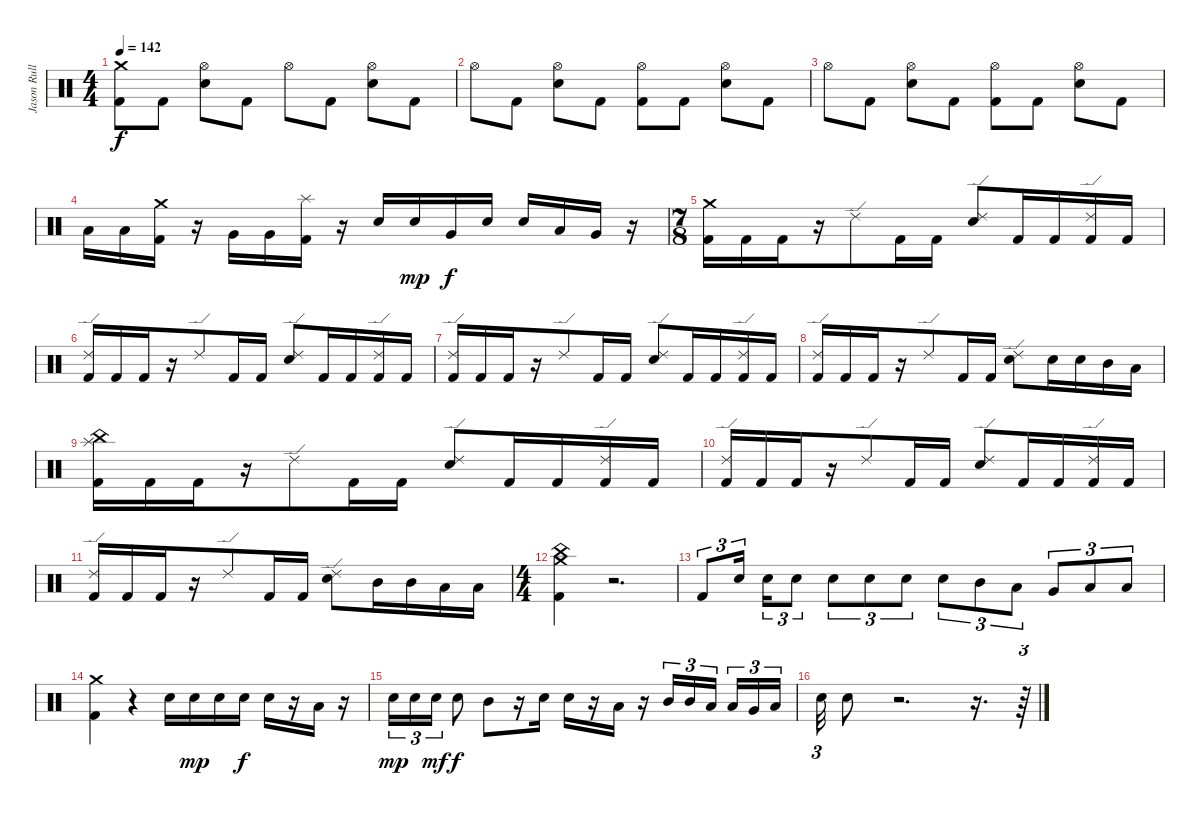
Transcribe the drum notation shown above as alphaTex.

\track ("Jason Rullo" "Jason Rull") {instrument percussion}
\staff {score}
\articulation defaults
\ts (4 4)
\tempo 142
\clef neutral
\ks c
("Crash medium (hit)" "Kick (hit) 2").8{dy f} "Kick (hit) 2".8 ("Hi-Hat (open)" "Electric Snare (hit)").8 "Kick (hit) 2".8 "Hi-Hat (open)".8 "Kick (hit) 2".8 ("Hi-Hat (open)" "Electric Snare (hit)").8 "Kick (hit) 2".8 |
"Hi-Hat (open)".8 "Kick (hit) 2".8 ("Hi-Hat (open)" "Electric Snare (hit)").8 "Kick (hit) 2".8 ("Kick (hit) 2" "Hi-Hat (open)").8 "Kick (hit) 2".8 ("Hi-Hat (open)" "Electric Snare (hit)").8 "Kick (hit) 2".8 |
"Hi-Hat (open)".8 "Kick (hit) 2".8 ("Hi-Hat (open)" "Electric Snare (hit)").8 "Kick (hit) 2".8 ("Kick (hit) 2" "Hi-Hat (open)").8 "Kick (hit) 2".8 ("Hi-Hat (open)" "Electric Snare (hit)").8 "Kick (hit) 2".8 |
"Low Tom (hit)".16 "Low Tom (hit)".16 ("Crash medium (hit)" "Kick (hit) 2").16 r.16 "Very Low Tom (hit)".16 "Very Low Tom (hit)".16 ("Splash (hit)" "Kick (hit) 2").16 r.16 "Electric Snare (hit)".16 "Electric Snare (hit)".16{dy mp} "Very Low Tom (hit)".16{dy f} "Electric Snare (hit)".16 "Electric Snare (hit)".16 "Low Tom (hit)".16 "Very Low Tom (hit)".16 r.16 |
\ts (7 8)
("Crash medium (hit)" "Kick (hit) 2").16 "Kick (hit) 2".16 "Kick (hit) 2".16 r.16 "Ride (edge) 2".8 "Kick (hit) 2".16 "Kick (hit) 2".16 ("Ride (edge) 2" "Electric Snare (hit)").8 "Kick (hit) 2".16 "Kick (hit) 2".16 ("Ride (edge) 2" "Kick (hit) 2").16 "Kick (hit) 2".16 |
("Ride (edge) 2" "Kick (hit) 2").16 "Kick (hit) 2".16 "Kick (hit) 2".16 r.16 "Ride (edge) 2".8 "Kick (hit) 2".16 "Kick (hit) 2".16 ("Ride (edge) 2" "Electric Snare (hit)").8 "Kick (hit) 2".16 "Kick (hit) 2".16 ("Ride (edge) 2" "Kick (hit) 2").16 "Kick (hit) 2".16 |
("Ride (edge) 2" "Kick (hit) 2").16 "Kick (hit) 2".16 "Kick (hit) 2".16 r.16 "Ride (edge) 2".8 "Kick (hit) 2".16 "Kick (hit) 2".16 ("Ride (edge) 2" "Electric Snare (hit)").8 "Kick (hit) 2".16 "Kick (hit) 2".16 ("Ride (edge) 2" "Kick (hit) 2").16 "Kick (hit) 2".16 |
("Ride (edge) 2" "Kick (hit) 2").16 "Kick (hit) 2".16 "Kick (hit) 2".16 r.16 "Ride (edge) 2".8 "Kick (hit) 2".16 "Kick (hit) 2".16 ("Ride (edge) 2" "Electric Snare (hit)").8 "Electric Snare (hit)".16 "Electric Snare (hit)".16 "Mid Tom (hit)".16 "Low Tom (hit)".16 |
("Splash (hit)" "China (hit)" "Kick (hit) 2").16 "Kick (hit) 2".16 "Kick (hit) 2".16 r.16 "Ride (edge) 2".8 "Kick (hit) 2".16 "Kick (hit) 2".16 ("Ride (edge) 2" "Electric Snare (hit)").8 "Kick (hit) 2".16 "Kick (hit) 2".16 ("Ride (edge) 2" "Kick (hit) 2").16 "Kick (hit) 2".16 |
("Ride (edge) 2" "Kick (hit) 2").16 "Kick (hit) 2".16 "Kick (hit) 2".16 r.16 "Ride (edge) 2".8 "Kick (hit) 2".16 "Kick (hit) 2".16 ("Ride (edge) 2" "Electric Snare (hit)").8 "Kick (hit) 2".16 "Kick (hit) 2".16 ("Ride (edge) 2" "Kick (hit) 2").16 "Kick (hit) 2".16 |
("Ride (edge) 2" "Kick (hit) 2").16 "Kick (hit) 2".16 "Kick (hit) 2".16 r.16 "Ride (edge) 2".8 "Kick (hit) 2".16 "Kick (hit) 2".16 ("Ride (edge) 2" "Electric Snare (hit)").8 "Mid Tom (hit)".16 "Mid Tom (hit)".16 "Low Tom (hit)".16 "Low Tom (hit)".16 |
\ts (4 4)
("China (hit)" "Crash medium (hit)" "Kick (hit) 2").4 r.2{d} |
"Kick (hit) 2".8{tu (3 2)} "Electric Snare (hit)".16{tu (3 2)} "Electric Snare (hit)".16{tu (3 2)} "Electric Snare (hit)".8{tu (3 2)} "Electric Snare (hit)".8{tu (3 2)} "Electric Snare (hit)".8{tu (3 2)} "Electric Snare (hit)".8{tu (3 2)} "Electric Snare (hit)".8{tu (3 2)} "Mid Tom (hit)".8{tu (3 2)} "Low Tom (hit)".8{tu (3 2)} "Very Low Tom (hit)".8{tu (3 2)} "Low Floor Tom (hit)".8{tu (3 2)} "Low Floor Tom (hit)".8{tu (3 2)} |
("Crash medium (hit)" "Kick (hit) 2").4 r.4 "Electric Snare (hit)".16 "Electric Snare (hit)".16{dy mp} "Electric Snare (hit)".16 "Electric Snare (hit)".16{dy f} "Electric Snare (hit)".16 r.16 "Low Tom (hit)".16 r.16 |
"Electric Snare (hit)".16{tu (3 2) dy mp} "Electric Snare (hit)".16{tu (3 2)} "Electric Snare (hit)".16{tu (3 2) dy mf} "Electric Snare (hit)".8{dy f} "Mid Tom (hit)".8 r.16 "Electric Snare (hit)".16 "Electric Snare (hit)".16 r.16 "Low Tom (hit)".16 r.16 "Mid Tom (hit)".16{tu (3 2)} "Mid Tom (hit)".16{tu (3 2)} "Low Tom (hit)".16{tu (3 2)} "Low Tom (hit)".16{tu (3 2)} "Very Low Tom (hit)".16{tu (3 2)} "Low Floor Tom (hit)".16{tu (3 2)} |
"Electric Snare (hit)".32{tu (3 2)} "Electric Snare (hit)".8 r.2{d} r.16{d} r.64{tu (3 2)}
